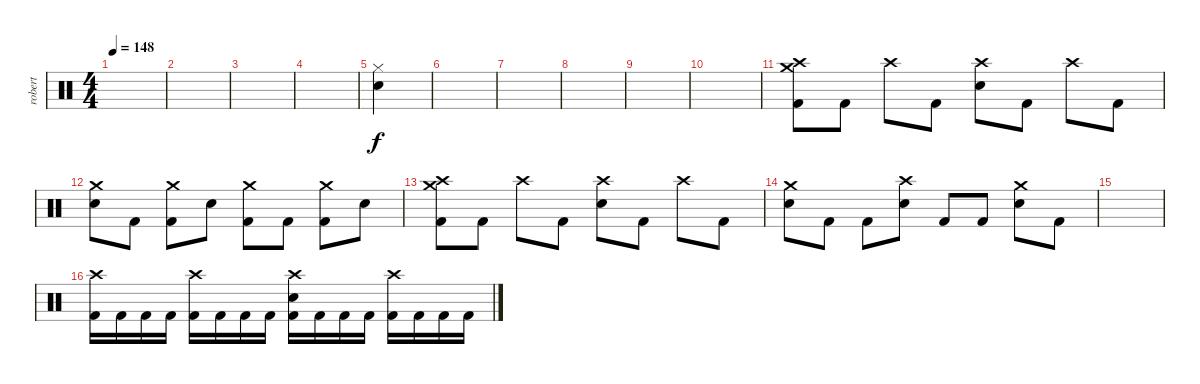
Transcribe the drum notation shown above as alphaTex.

\track ("robert" "robert") {instrument percussion}
\staff {score}
\articulation defaults
\ts (4 4)
\tempo 148
\clef neutral
\ks c
|
|
|
|
("Hi-Hat (closed)" "Electric Snare (hit)").4 |
|
|
|
|
|
("Crash medium (hit)" "Kick (hit) 2" "Crash high (hit)").8 "Kick (hit) 2".8 "Crash high (hit)".8 "Kick (hit) 2".8 ("Electric Snare (hit)" "Crash high (hit)").8 "Kick (hit) 2".8 "Crash high (hit)".8 "Kick (hit) 2".8 |
("Electric Snare (hit)" "Crash medium (hit)").8 "Kick (hit) 2".8 ("Kick (hit) 2" "Crash medium (hit)").8 "Electric Snare (hit)".8 ("Kick (hit) 2" "Crash medium (hit)").8 "Kick (hit) 2".8 ("Kick (hit) 2" "Crash medium (hit)").8 "Electric Snare (hit)".8 |
("Crash medium (hit)" "Kick (hit) 2" "Crash high (hit)").8 "Kick (hit) 2".8 "Crash high (hit)".8 "Kick (hit) 2".8 ("Electric Snare (hit)" "Crash high (hit)").8 "Kick (hit) 2".8 "Crash high (hit)".8 "Kick (hit) 2".8 |
("Crash medium (hit)" "Electric Snare (hit)").8 "Kick (hit) 2".8 "Kick (hit) 2".8 ("Crash high (hit)" "Electric Snare (hit)").8 "Kick (hit) 2".8 "Kick (hit) 2".8 ("Electric Snare (hit)" "Crash medium (hit)").8 "Kick (hit) 2".8 |
|
("Crash high (hit)" "Kick (hit) 2").16 "Kick (hit) 2".16 "Kick (hit) 2".16 "Kick (hit) 2".16 ("Crash high (hit)" "Kick (hit) 2").16 "Kick (hit) 2".16 "Kick (hit) 2".16 "Kick (hit) 2".16 ("Electric Snare (hit)" "Crash high (hit)" "Kick (hit) 2").16 "Kick (hit) 2".16 "Kick (hit) 2".16 "Kick (hit) 2".16 ("Crash high (hit)" "Kick (hit) 2").16 "Kick (hit) 2".16 "Kick (hit) 2".16 "Kick (hit) 2".16
